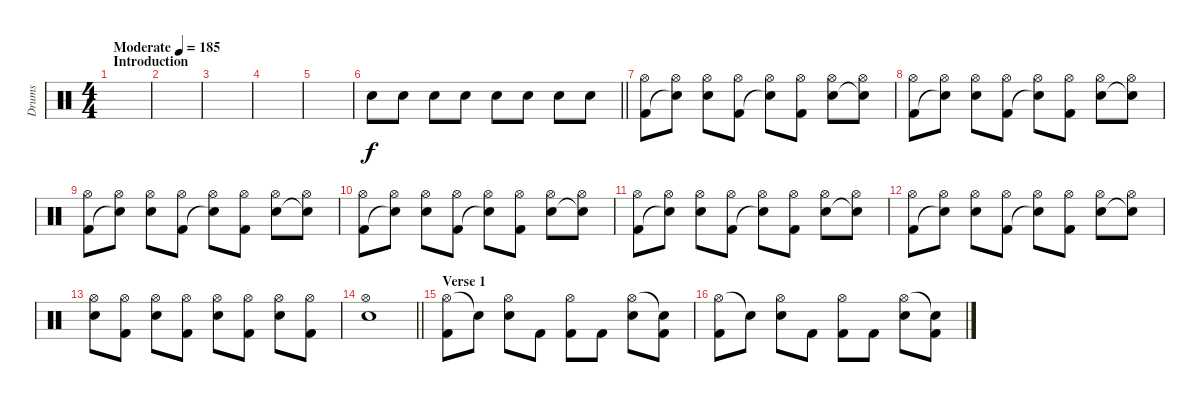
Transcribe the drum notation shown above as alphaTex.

\track ("Drums" "Drums") {instrument percussion}
\staff {score}
\articulation defaults
\ts (4 4)
\section ("" "Introduction")
\tempo (185 "Moderate")
\clef neutral
\ks c
|
|
|
|
|
\barLineRight lightlight "Electric Snare (hit)".8 "Electric Snare (hit)".8 "Electric Snare (hit)".8 "Electric Snare (hit)".8 "Electric Snare (hit)".8 "Electric Snare (hit)".8 "Electric Snare (hit)".8 "Electric Snare (hit)".8
|
("Hi-Hat (open)" "Kick (hit) 2").8 ("Hi-Hat (open)" "Snare (hit)"{t}).8 ("Hi-Hat (open)" "Electric Snare (hit)").8 ("Hi-Hat (open)" "Kick (hit) 2").8 ("Hi-Hat (open)" "Snare (hit)"{t}).8 ("Hi-Hat (open)" "Kick (hit) 2").8 ("Hi-Hat (open)" "Electric Snare (hit)").8 ("Hi-Hat (open)" "Snare (hit)"{t}).8 |
("Hi-Hat (open)" "Kick (hit) 2").8 ("Hi-Hat (open)" "Snare (hit)"{t}).8 ("Hi-Hat (open)" "Electric Snare (hit)").8 ("Hi-Hat (open)" "Kick (hit) 2").8 ("Hi-Hat (open)" "Snare (hit)"{t}).8 ("Hi-Hat (open)" "Kick (hit) 2").8 ("Hi-Hat (open)" "Electric Snare (hit)").8 ("Hi-Hat (open)" "Snare (hit)"{t}).8 |
("Hi-Hat (open)" "Kick (hit) 2").8 ("Hi-Hat (open)" "Snare (hit)"{t}).8 ("Hi-Hat (open)" "Electric Snare (hit)").8 ("Hi-Hat (open)" "Kick (hit) 2").8 ("Hi-Hat (open)" "Snare (hit)"{t}).8 ("Hi-Hat (open)" "Kick (hit) 2").8 ("Hi-Hat (open)" "Electric Snare (hit)").8 ("Hi-Hat (open)" "Snare (hit)"{t}).8 |
("Hi-Hat (open)" "Kick (hit) 2").8 ("Hi-Hat (open)" "Snare (hit)"{t}).8 ("Hi-Hat (open)" "Electric Snare (hit)").8 ("Hi-Hat (open)" "Kick (hit) 2").8 ("Hi-Hat (open)" "Snare (hit)"{t}).8 ("Hi-Hat (open)" "Kick (hit) 2").8 ("Hi-Hat (open)" "Electric Snare (hit)").8 ("Hi-Hat (open)" "Snare (hit)"{t}).8 |
("Hi-Hat (open)" "Kick (hit) 2").8 ("Hi-Hat (open)" "Snare (hit)"{t}).8 ("Hi-Hat (open)" "Electric Snare (hit)").8 ("Hi-Hat (open)" "Kick (hit) 2").8 ("Hi-Hat (open)" "Snare (hit)"{t}).8 ("Hi-Hat (open)" "Kick (hit) 2").8 ("Hi-Hat (open)" "Electric Snare (hit)").8 ("Hi-Hat (open)" "Snare (hit)"{t}).8 |
("Hi-Hat (open)" "Kick (hit) 2").8 ("Hi-Hat (open)" "Snare (hit)"{t}).8 ("Hi-Hat (open)" "Electric Snare (hit)").8 ("Hi-Hat (open)" "Kick (hit) 2").8 ("Hi-Hat (open)" "Snare (hit)"{t}).8 ("Hi-Hat (open)" "Kick (hit) 2").8 ("Hi-Hat (open)" "Electric Snare (hit)").8 ("Hi-Hat (open)" "Snare (hit)"{t}).8 |
("Hi-Hat (open)" "Electric Snare (hit)").8 ("Hi-Hat (open)" "Kick (hit) 2").8 ("Hi-Hat (open)" "Electric Snare (hit)").8 ("Hi-Hat (open)" "Kick (hit) 2").8 ("Hi-Hat (open)" "Electric Snare (hit)").8 ("Hi-Hat (open)" "Kick (hit) 2").8 ("Hi-Hat (open)" "Electric Snare (hit)").8 ("Hi-Hat (open)" "Kick (hit) 2").8 |
\barLineRight lightlight
("Hi-Hat (open)" "Electric Snare (hit)").1 |
\section ("" "Verse 1")
("Hi-Hat (open)" "Kick (hit) 2").8 "Snare (hit)"{t}.8 ("Hi-Hat (open)" "Electric Snare (hit)").8 "Kick (hit) 2".8 ("Hi-Hat (open)" "Kick (hit) 2").8 "Kick (hit) 2".8 ("Hi-Hat (open)" "Electric Snare (hit)").8 ("Snare (hit)"{t} "Kick (hit) 2").8 |
("Hi-Hat (open)" "Kick (hit) 2").8 "Snare (hit)"{t}.8 ("Hi-Hat (open)" "Electric Snare (hit)").8 "Kick (hit) 2".8 ("Hi-Hat (open)" "Kick (hit) 2").8 "Kick (hit) 2".8 ("Hi-Hat (open)" "Electric Snare (hit)").8 ("Snare (hit)"{t} "Kick (hit) 2").8
